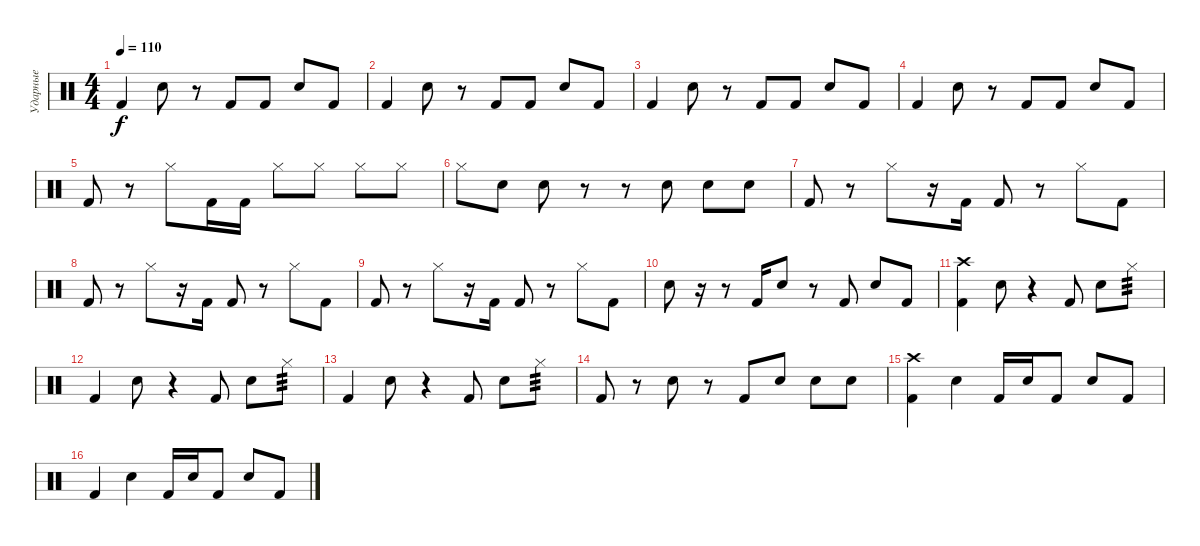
\track ("Ударные" "Ударные") {instrument percussion}
\staff {score}
\articulation defaults
\ts (4 4)
\tempo 110
\clef neutral
\ks c "Kick (hit) 2".4{dy f} "Electric Snare (hit)".8
r.8 "Kick (hit) 2".8 "Kick (hit) 2".8 "Electric Snare (hit)".8 "Kick (hit) 2".8 |
"Kick (hit) 2".4 "Electric Snare (hit)".8 r.8 "Kick (hit) 2".8 "Kick (hit) 2".8 "Electric Snare (hit)".8 "Kick (hit) 2".8 |
"Kick (hit) 2".4 "Electric Snare (hit)".8 r.8 "Kick (hit) 2".8 "Kick (hit) 2".8 "Electric Snare (hit)".8 "Kick (hit) 2".8 |
"Kick (hit) 2".4 "Electric Snare (hit)".8 r.8 "Kick (hit) 2".8 "Kick (hit) 2".8 "Electric Snare (hit)".8 "Kick (hit) 2".8 |
"Kick (hit) 2".8 r.8 "Hi-Hat (closed)".8 "Kick (hit) 2".16 "Kick (hit) 2".16 "Hi-Hat (closed)".8 "Hi-Hat (closed)".8 "Hi-Hat (closed)".8 "Hi-Hat (closed)".8 |
"Hi-Hat (closed)".8 "Electric Snare (hit)".8 "Electric Snare (hit)".8 r.8 r.8 "Electric Snare (hit)".8 "Electric Snare (hit)".8 "Electric Snare (hit)".8 |
"Kick (hit) 2".8 r.8 "Hi-Hat (closed)".8 r.16 "Kick (hit) 2".16 "Kick (hit) 2".8 r.8 "Hi-Hat (closed)".8 "Kick (hit) 2".8 |
"Kick (hit) 2".8 r.8 "Hi-Hat (closed)".8 r.16 "Kick (hit) 2".16 "Kick (hit) 2".8 r.8 "Hi-Hat (closed)".8 "Kick (hit) 2".8 |
"Kick (hit) 2".8 r.8 "Hi-Hat (closed)".8 r.16 "Kick (hit) 2".16 "Kick (hit) 2".8 r.8 "Hi-Hat (closed)".8 "Kick (hit) 2".8 |
"Electric Snare (hit)".8 r.16 r.8 "Kick (hit) 2".16 "Electric Snare (hit)".8 r.8 "Kick (hit) 2".8 "Electric Snare (hit)".8 "Kick (hit) 2".8 |
("Kick (hit) 2" "Crash high (hit)").4 "Electric Snare (hit)".8 r.4 "Kick (hit) 2".8 "Electric Snare (hit)".8 "Hi-Hat (closed)".8{tp 3} |
"Kick (hit) 2".4 "Electric Snare (hit)".8 r.4 "Kick (hit) 2".8 "Electric Snare (hit)".8 "Hi-Hat (closed)".8{tp 3} |
"Kick (hit) 2".4 "Electric Snare (hit)".8 r.4 "Kick (hit) 2".8 "Electric Snare (hit)".8 "Hi-Hat (closed)".8{tp 3} |
"Kick (hit) 2".8 r.8 "Electric Snare (hit)".8 r.8 "Kick (hit) 2".8 "Electric Snare (hit)".8 "Electric Snare (hit)".8 "Electric Snare (hit)".8 |
("Crash high (hit)" "Kick (hit) 2").4 "Electric Snare (hit)".4 "Kick (hit) 2".16 "Electric Snare (hit)".16 "Kick (hit) 2".8 "Electric Snare (hit)".8 "Kick (hit) 2".8 |
"Kick (hit) 2".4 "Electric Snare (hit)".4 "Kick (hit) 2".16 "Electric Snare (hit)".16 "Kick (hit) 2".8 "Electric Snare (hit)".8 "Kick (hit) 2".8
